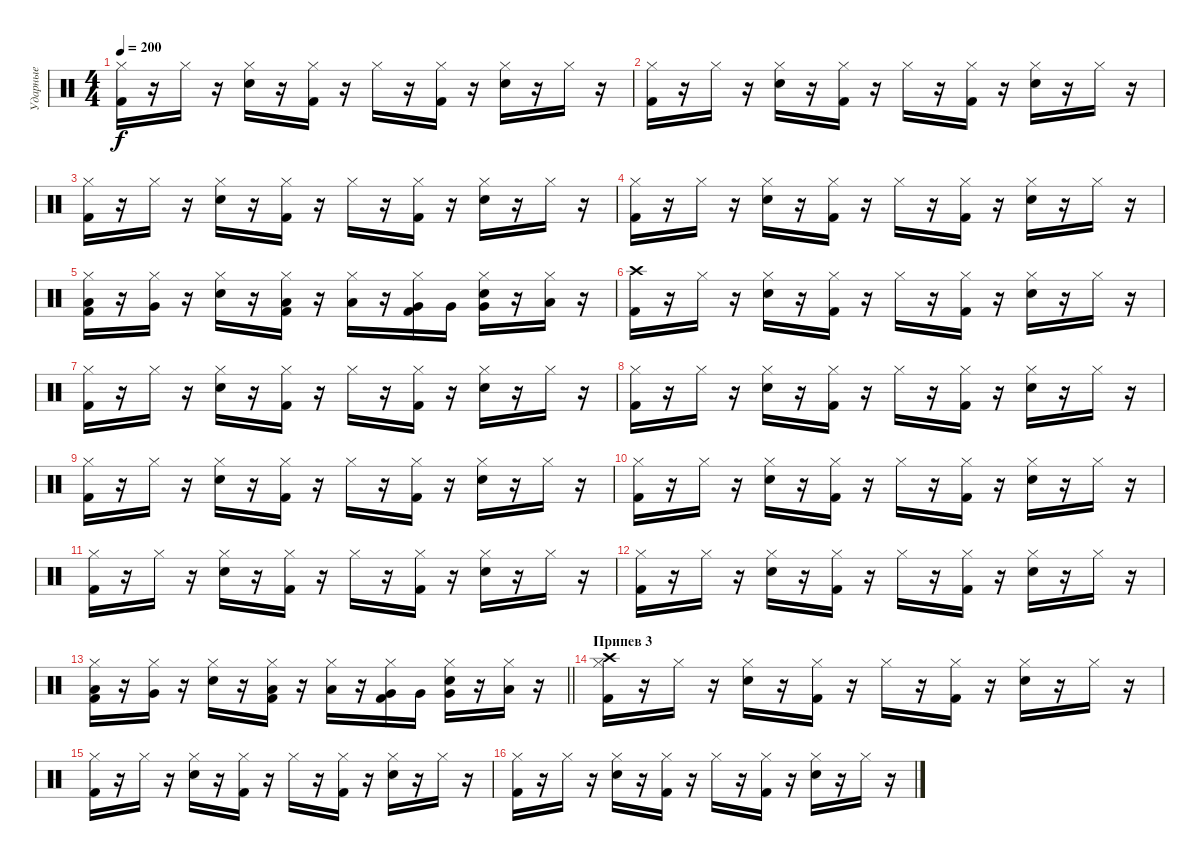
\track ("Ударные" "Ударные") {instrument percussion}
\staff {score}
\articulation defaults
\ts (4 4)
\tempo 200
\clef neutral
\ks c
("Kick (hit) 2" "Hi-Hat (closed)").16{dy f} r.16 "Hi-Hat (closed)".16 r.16 ("Snare (hit) 2" "Hi-Hat (closed)").16 r.16 ("Kick (hit) 2" "Hi-Hat (closed)").16 r.16 "Hi-Hat (closed)".16 r.16 ("Kick (hit) 2" "Hi-Hat (closed)").16 r.16 ("Snare (hit) 2" "Hi-Hat (closed)").16 r.16 "Hi-Hat (closed)".16 r.16 |
("Kick (hit) 2" "Hi-Hat (closed)").16 r.16 "Hi-Hat (closed)".16 r.16 ("Snare (hit) 2" "Hi-Hat (closed)").16 r.16 ("Kick (hit) 2" "Hi-Hat (closed)").16 r.16 "Hi-Hat (closed)".16 r.16 ("Kick (hit) 2" "Hi-Hat (closed)").16 r.16 ("Snare (hit) 2" "Hi-Hat (closed)").16 r.16 "Hi-Hat (closed)".16 r.16 |
("Kick (hit) 2" "Hi-Hat (closed)").16 r.16 "Hi-Hat (closed)".16 r.16 ("Snare (hit) 2" "Hi-Hat (closed)").16 r.16 ("Kick (hit) 2" "Hi-Hat (closed)").16 r.16 "Hi-Hat (closed)".16 r.16 ("Kick (hit) 2" "Hi-Hat (closed)").16 r.16 ("Snare (hit) 2" "Hi-Hat (closed)").16 r.16 "Hi-Hat (closed)".16 r.16 |
("Kick (hit) 2" "Hi-Hat (closed)").16 r.16 "Hi-Hat (closed)".16 r.16 ("Snare (hit) 2" "Hi-Hat (closed)").16 r.16 ("Kick (hit) 2" "Hi-Hat (closed)").16 r.16 "Hi-Hat (closed)".16 r.16 ("Kick (hit) 2" "Hi-Hat (closed)").16 r.16 ("Snare (hit) 2" "Hi-Hat (closed)").16 r.16 "Hi-Hat (closed)".16 r.16 |
("Kick (hit) 2" "Low Floor Tom (hit)" "Hi-Hat (closed)").16 r.16 ("Very Low Tom (hit)" "Hi-Hat (closed)").16 r.16 ("Snare (hit) 2" "Hi-Hat (closed)").16 r.16 ("Kick (hit) 2" "Low Floor Tom (hit)" "Hi-Hat (closed)").16 r.16 ("Low Floor Tom (hit)" "Hi-Hat (closed)").16 r.16 ("Kick (hit) 2" "Very Low Tom (hit)" "Hi-Hat (closed)").16 "Very Low Tom (hit)".16 ("Snare (hit) 2" "Very Low Tom (hit)" "Hi-Hat (closed)").16 r.16 ("Low Tom (hit)" "Hi-Hat (closed)").16 r.16 |
("Kick (hit) 2" "Crash high (hit)").16 r.16 "Hi-Hat (closed)".16 r.16 ("Snare (hit) 2" "Hi-Hat (closed)").16 r.16 ("Kick (hit) 2" "Hi-Hat (closed)").16 r.16 "Hi-Hat (closed)".16 r.16 ("Kick (hit) 2" "Hi-Hat (closed)").16 r.16 ("Snare (hit) 2" "Hi-Hat (closed)").16 r.16 "Hi-Hat (closed)".16 r.16 |
("Kick (hit) 2" "Hi-Hat (closed)").16 r.16 "Hi-Hat (closed)".16 r.16 ("Snare (hit) 2" "Hi-Hat (closed)").16 r.16 ("Kick (hit) 2" "Hi-Hat (closed)").16 r.16 "Hi-Hat (closed)".16 r.16 ("Kick (hit) 2" "Hi-Hat (closed)").16 r.16 ("Snare (hit) 2" "Hi-Hat (closed)").16 r.16 "Hi-Hat (closed)".16 r.16 |
("Kick (hit) 2" "Hi-Hat (closed)").16 r.16 "Hi-Hat (closed)".16 r.16 ("Snare (hit) 2" "Hi-Hat (closed)").16 r.16 ("Kick (hit) 2" "Hi-Hat (closed)").16 r.16 "Hi-Hat (closed)".16 r.16 ("Kick (hit) 2" "Hi-Hat (closed)").16 r.16 ("Snare (hit) 2" "Hi-Hat (closed)").16 r.16 "Hi-Hat (closed)".16 r.16 |
("Kick (hit) 2" "Hi-Hat (closed)").16 r.16 "Hi-Hat (closed)".16 r.16 ("Snare (hit) 2" "Hi-Hat (closed)").16 r.16 ("Kick (hit) 2" "Hi-Hat (closed)").16 r.16 "Hi-Hat (closed)".16 r.16 ("Kick (hit) 2" "Hi-Hat (closed)").16 r.16 ("Snare (hit) 2" "Hi-Hat (closed)").16 r.16 "Hi-Hat (closed)".16 r.16 |
("Kick (hit) 2" "Hi-Hat (closed)").16 r.16 "Hi-Hat (closed)".16 r.16 ("Snare (hit) 2" "Hi-Hat (closed)").16 r.16 ("Kick (hit) 2" "Hi-Hat (closed)").16 r.16 "Hi-Hat (closed)".16 r.16 ("Kick (hit) 2" "Hi-Hat (closed)").16 r.16 ("Snare (hit) 2" "Hi-Hat (closed)").16 r.16 "Hi-Hat (closed)".16 r.16 |
("Kick (hit) 2" "Hi-Hat (closed)").16 r.16 "Hi-Hat (closed)".16 r.16 ("Snare (hit) 2" "Hi-Hat (closed)").16 r.16 ("Kick (hit) 2" "Hi-Hat (closed)").16 r.16 "Hi-Hat (closed)".16 r.16 ("Kick (hit) 2" "Hi-Hat (closed)").16 r.16 ("Snare (hit) 2" "Hi-Hat (closed)").16 r.16 "Hi-Hat (closed)".16 r.16 |
("Kick (hit) 2" "Hi-Hat (closed)").16 r.16 "Hi-Hat (closed)".16 r.16 ("Snare (hit) 2" "Hi-Hat (closed)").16 r.16 ("Kick (hit) 2" "Hi-Hat (closed)").16 r.16 "Hi-Hat (closed)".16 r.16 ("Kick (hit) 2" "Hi-Hat (closed)").16 r.16 ("Snare (hit) 2" "Hi-Hat (closed)").16 r.16 "Hi-Hat (closed)".16 r.16 |
\barLineRight lightlight
("Kick (hit) 2" "Low Floor Tom (hit)" "Hi-Hat (closed)").16 r.16 ("Very Low Tom (hit)" "Hi-Hat (closed)").16 r.16 ("Snare (hit) 2" "Hi-Hat (closed)").16 r.16 ("Kick (hit) 2" "Low Floor Tom (hit)" "Hi-Hat (closed)").16 r.16 ("Low Floor Tom (hit)" "Hi-Hat (closed)").16 r.16 ("Kick (hit) 2" "Very Low Tom (hit)" "Hi-Hat (closed)").16 "Very Low Tom (hit)".16 ("Snare (hit) 2" "Very Low Tom (hit)" "Hi-Hat (closed)").16 r.16 ("Low Tom (hit)" "Hi-Hat (closed)").16 r.16 |
\section ("" "Припев 3")
("Kick (hit) 2" "Crash high (hit)" "Hi-Hat (closed)").16 r.16 "Hi-Hat (closed)".16 r.16 ("Snare (hit) 2" "Hi-Hat (closed)").16 r.16 ("Kick (hit) 2" "Hi-Hat (closed)").16 r.16 "Hi-Hat (closed)".16 r.16 ("Kick (hit) 2" "Hi-Hat (closed)").16 r.16 ("Snare (hit) 2" "Hi-Hat (closed)").16 r.16 "Hi-Hat (closed)".16 r.16 |
("Kick (hit) 2" "Hi-Hat (closed)").16 r.16 "Hi-Hat (closed)".16 r.16 ("Snare (hit) 2" "Hi-Hat (closed)").16 r.16 ("Kick (hit) 2" "Hi-Hat (closed)").16 r.16 "Hi-Hat (closed)".16 r.16 ("Kick (hit) 2" "Hi-Hat (closed)").16 r.16 ("Snare (hit) 2" "Hi-Hat (closed)").16 r.16 "Hi-Hat (closed)".16 r.16 |
("Kick (hit) 2" "Hi-Hat (closed)").16 r.16 "Hi-Hat (closed)".16 r.16 ("Snare (hit) 2" "Hi-Hat (closed)").16 r.16 ("Kick (hit) 2" "Hi-Hat (closed)").16 r.16 "Hi-Hat (closed)".16 r.16 ("Kick (hit) 2" "Hi-Hat (closed)").16 r.16 ("Snare (hit) 2" "Hi-Hat (closed)").16 r.16 "Hi-Hat (closed)".16 r.16
